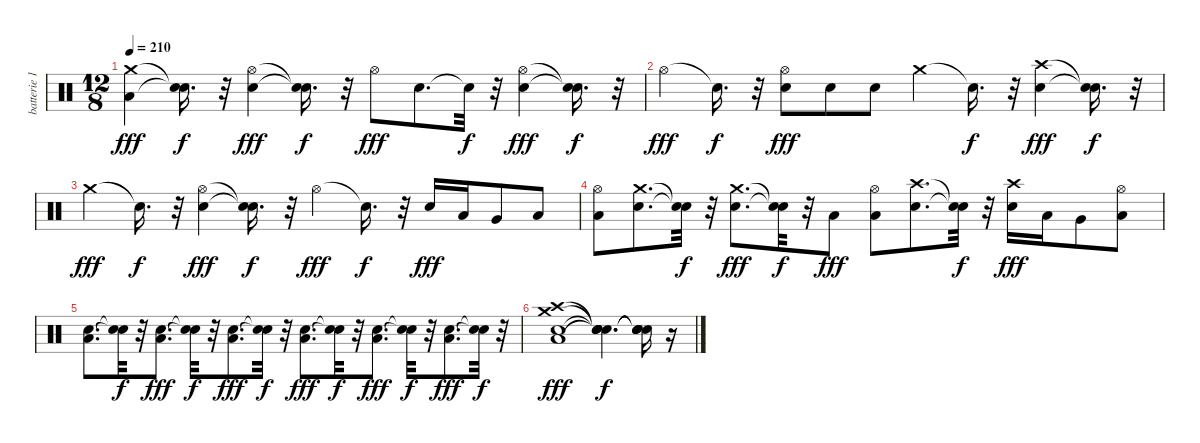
\track ("batterie 1" "batterie 1") {instrument percussion}
\staff {score}
\articulation defaults
\ts (12 8)
\tempo 210
\clef neutral
\ks c
("Low Floor Tom (hit)" "Crash medium (hit)").4{dy fff} ("Snare (hit)"{t} "Snare (hit)"{t}).16{d dy f} r.32 ("Electric Snare (hit)" "Hi-Hat (open)").4{dy fff} ("Snare (hit)"{t} "Snare (hit)"{t}).16{d dy f} r.32 "Hi-Hat (open)".8{dy fff} "Electric Snare (hit)".8{d} "Snare (hit)"{t}.32{dy f} r.32 ("Electric Snare (hit)" "Hi-Hat (open)").4{dy fff} ("Snare (hit)"{t} "Snare (hit)"{t}).16{d dy f} r.32 |
"Hi-Hat (open)".4{dy fff} "Snare (hit)"{t}.16{d dy f} r.32 ("Electric Snare (hit)" "Hi-Hat (open)").8{dy fff} "Electric Snare (hit)".8 "Electric Snare (hit)".8 "Crash medium (hit)".4 "Snare (hit)"{t}.16{d dy f} r.32 ("Electric Snare (hit)" "Crash high (hit)").4{dy fff} ("Snare (hit)"{t} "Snare (hit)"{t}).16{d dy f} r.32 |
"Crash medium (hit)".4{dy fff} "Snare (hit)"{t}.16{d dy f} r.32 ("Electric Snare (hit)" "Hi-Hat (open)").4{dy fff} ("Snare (hit)"{t} "Snare (hit)"{t}).16{d dy f} r.32 "Hi-Hat (open)".4{dy fff} "Snare (hit)"{t}.16{d dy f} r.32 "Electric Snare (hit)".16{dy fff} "Low Tom (hit)".16 "Very Low Tom (hit)".8 "Low Floor Tom (hit)".8 |
("Low Floor Tom (hit)" "Hi-Hat (open)").8 ("Electric Snare (hit)" "Crash medium (hit)").8{d} ("Snare (hit)"{t} "Snare (hit)"{t}).32{dy f} r.32 ("Electric Snare (hit)" "Crash medium (hit)").8{d dy fff} ("Snare (hit)"{t} "Snare (hit)"{t}).32{dy f} r.32 "Low Floor Tom (hit)".8{dy fff} ("Low Floor Tom (hit)" "Hi-Hat (open)").8 ("Electric Snare (hit)" "Crash high (hit)").8{d} ("Snare (hit)"{t} "Snare (hit)"{t}).32{dy f} r.32 ("Electric Snare (hit)" "Crash high (hit)").16{dy fff} "Low Tom (hit)".16 "Very Low Tom (hit)".8 ("Low Floor Tom (hit)" "Hi-Hat (open)").8 |
("Electric Snare (hit)" "Low Floor Tom (hit)").8{d} ("Snare (hit)"{t} "Snare (hit)"{t}).32{dy f} r.32 ("Electric Snare (hit)" "Low Floor Tom (hit)").8{d dy fff} ("Snare (hit)"{t} "Snare (hit)"{t}).32{dy f} r.32 ("Electric Snare (hit)" "Low Floor Tom (hit)").8{d dy fff} ("Snare (hit)"{t} "Snare (hit)"{t}).32{dy f} r.32 ("Electric Snare (hit)" "Low Floor Tom (hit)").8{d dy fff} ("Snare (hit)"{t} "Snare (hit)"{t}).32{dy f} r.32 ("Electric Snare (hit)" "Low Floor Tom (hit)").8{d dy fff} ("Snare (hit)"{t} "Snare (hit)"{t}).32{dy f} r.32 ("Electric Snare (hit)" "Low Floor Tom (hit)").8{d dy fff} ("Snare (hit)"{t} "Snare (hit)"{t}).32{dy f} r.32 |
("Electric Snare (hit)" "Low Floor Tom (hit)" "Crash high (hit)" "Crash medium (hit)").1{dy fff} ("Snare (hit)"{t} "Snare (hit)"{t} "Snare (hit)"{t} "Snare (hit)"{t}).4{d dy f} ("Snare (hit)"{t} "Snare (hit)"{t} "Snare (hit)"{t} "Snare (hit)"{t}).16 r.16
